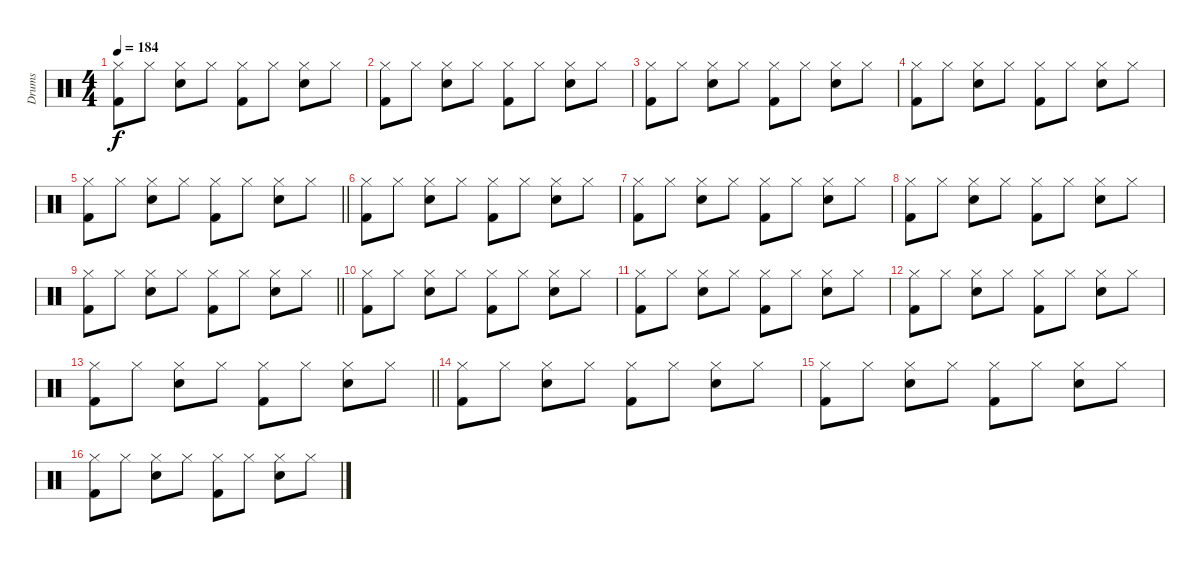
\track ("Drums" "Drums") {instrument percussion}
\staff {score}
\articulation defaults
\ts (4 4)
\tempo 184
\clef neutral
\ks c
("Hi-Hat (closed)" "Kick (hit) 2").8{dy f} "Hi-Hat (closed)".8 ("Hi-Hat (closed)" "Snare (hit) 2").8 "Hi-Hat (closed)".8 ("Hi-Hat (closed)" "Kick (hit) 2").8 "Hi-Hat (closed)".8 ("Hi-Hat (closed)" "Snare (hit) 2").8 "Hi-Hat (closed)".8 |
("Hi-Hat (closed)" "Kick (hit) 2").8 "Hi-Hat (closed)".8 ("Hi-Hat (closed)" "Snare (hit) 2").8 "Hi-Hat (closed)".8 ("Hi-Hat (closed)" "Kick (hit) 2").8 "Hi-Hat (closed)".8 ("Hi-Hat (closed)" "Snare (hit) 2").8 "Hi-Hat (closed)".8 |
("Hi-Hat (closed)" "Kick (hit) 2").8 "Hi-Hat (closed)".8 ("Hi-Hat (closed)" "Snare (hit) 2").8 "Hi-Hat (closed)".8 ("Hi-Hat (closed)" "Kick (hit) 2").8 "Hi-Hat (closed)".8 ("Hi-Hat (closed)" "Snare (hit) 2").8 "Hi-Hat (closed)".8 |
("Hi-Hat (closed)" "Kick (hit) 2").8 "Hi-Hat (closed)".8 ("Hi-Hat (closed)" "Snare (hit) 2").8 "Hi-Hat (closed)".8 ("Hi-Hat (closed)" "Kick (hit) 2").8 "Hi-Hat (closed)".8 ("Hi-Hat (closed)" "Snare (hit) 2").8 "Hi-Hat (closed)".8 |
\barLineRight lightlight
("Hi-Hat (closed)" "Kick (hit) 2").8 "Hi-Hat (closed)".8 ("Hi-Hat (closed)" "Snare (hit) 2").8 "Hi-Hat (closed)".8 ("Hi-Hat (closed)" "Kick (hit) 2").8 "Hi-Hat (closed)".8 ("Hi-Hat (closed)" "Snare (hit) 2").8 "Hi-Hat (closed)".8 |
("Hi-Hat (closed)" "Kick (hit) 2").8 "Hi-Hat (closed)".8 ("Hi-Hat (closed)" "Snare (hit) 2").8 "Hi-Hat (closed)".8 ("Hi-Hat (closed)" "Kick (hit) 2").8 "Hi-Hat (closed)".8 ("Hi-Hat (closed)" "Snare (hit) 2").8 "Hi-Hat (closed)".8 |
("Hi-Hat (closed)" "Kick (hit) 2").8 "Hi-Hat (closed)".8 ("Hi-Hat (closed)" "Snare (hit) 2").8 "Hi-Hat (closed)".8 ("Hi-Hat (closed)" "Kick (hit) 2").8 "Hi-Hat (closed)".8 ("Hi-Hat (closed)" "Snare (hit) 2").8 "Hi-Hat (closed)".8 |
("Hi-Hat (closed)" "Kick (hit) 2").8 "Hi-Hat (closed)".8 ("Hi-Hat (closed)" "Snare (hit) 2").8 "Hi-Hat (closed)".8 ("Hi-Hat (closed)" "Kick (hit) 2").8 "Hi-Hat (closed)".8 ("Hi-Hat (closed)" "Snare (hit) 2").8 "Hi-Hat (closed)".8 |
\barLineRight lightlight
("Hi-Hat (closed)" "Kick (hit) 2").8 "Hi-Hat (closed)".8 ("Hi-Hat (closed)" "Snare (hit) 2").8 "Hi-Hat (closed)".8 ("Hi-Hat (closed)" "Kick (hit) 2").8 "Hi-Hat (closed)".8 ("Hi-Hat (closed)" "Snare (hit) 2").8 "Hi-Hat (closed)".8 |
("Hi-Hat (closed)" "Kick (hit) 2").8 "Hi-Hat (closed)".8 ("Hi-Hat (closed)" "Snare (hit) 2").8 "Hi-Hat (closed)".8 ("Hi-Hat (closed)" "Kick (hit) 2").8 "Hi-Hat (closed)".8 ("Hi-Hat (closed)" "Snare (hit) 2").8 "Hi-Hat (closed)".8 |
("Hi-Hat (closed)" "Kick (hit) 2").8 "Hi-Hat (closed)".8 ("Hi-Hat (closed)" "Snare (hit) 2").8 "Hi-Hat (closed)".8 ("Hi-Hat (closed)" "Kick (hit) 2").8 "Hi-Hat (closed)".8 ("Hi-Hat (closed)" "Snare (hit) 2").8 "Hi-Hat (closed)".8 |
("Hi-Hat (closed)" "Kick (hit) 2").8 "Hi-Hat (closed)".8 ("Hi-Hat (closed)" "Snare (hit) 2").8 "Hi-Hat (closed)".8 ("Hi-Hat (closed)" "Kick (hit) 2").8 "Hi-Hat (closed)".8 ("Hi-Hat (closed)" "Snare (hit) 2").8 "Hi-Hat (closed)".8 |
\barLineRight lightlight
("Hi-Hat (closed)" "Kick (hit) 2").8 "Hi-Hat (closed)".8 ("Hi-Hat (closed)" "Snare (hit) 2").8 "Hi-Hat (closed)".8 ("Hi-Hat (closed)" "Kick (hit) 2").8 "Hi-Hat (closed)".8 ("Hi-Hat (closed)" "Snare (hit) 2").8 "Hi-Hat (closed)".8 |
("Hi-Hat (closed)" "Kick (hit) 2").8 "Hi-Hat (closed)".8 ("Hi-Hat (closed)" "Snare (hit) 2").8 "Hi-Hat (closed)".8 ("Hi-Hat (closed)" "Kick (hit) 2").8 "Hi-Hat (closed)".8 ("Hi-Hat (closed)" "Snare (hit) 2").8 "Hi-Hat (closed)".8 |
("Hi-Hat (closed)" "Kick (hit) 2").8 "Hi-Hat (closed)".8 ("Hi-Hat (closed)" "Snare (hit) 2").8 "Hi-Hat (closed)".8 ("Hi-Hat (closed)" "Kick (hit) 2").8 "Hi-Hat (closed)".8 ("Hi-Hat (closed)" "Snare (hit) 2").8 "Hi-Hat (closed)".8 |
("Hi-Hat (closed)" "Kick (hit) 2").8 "Hi-Hat (closed)".8 ("Hi-Hat (closed)" "Snare (hit) 2").8 "Hi-Hat (closed)".8 ("Hi-Hat (closed)" "Kick (hit) 2").8 "Hi-Hat (closed)".8 ("Hi-Hat (closed)" "Snare (hit) 2").8 "Hi-Hat (closed)".8
